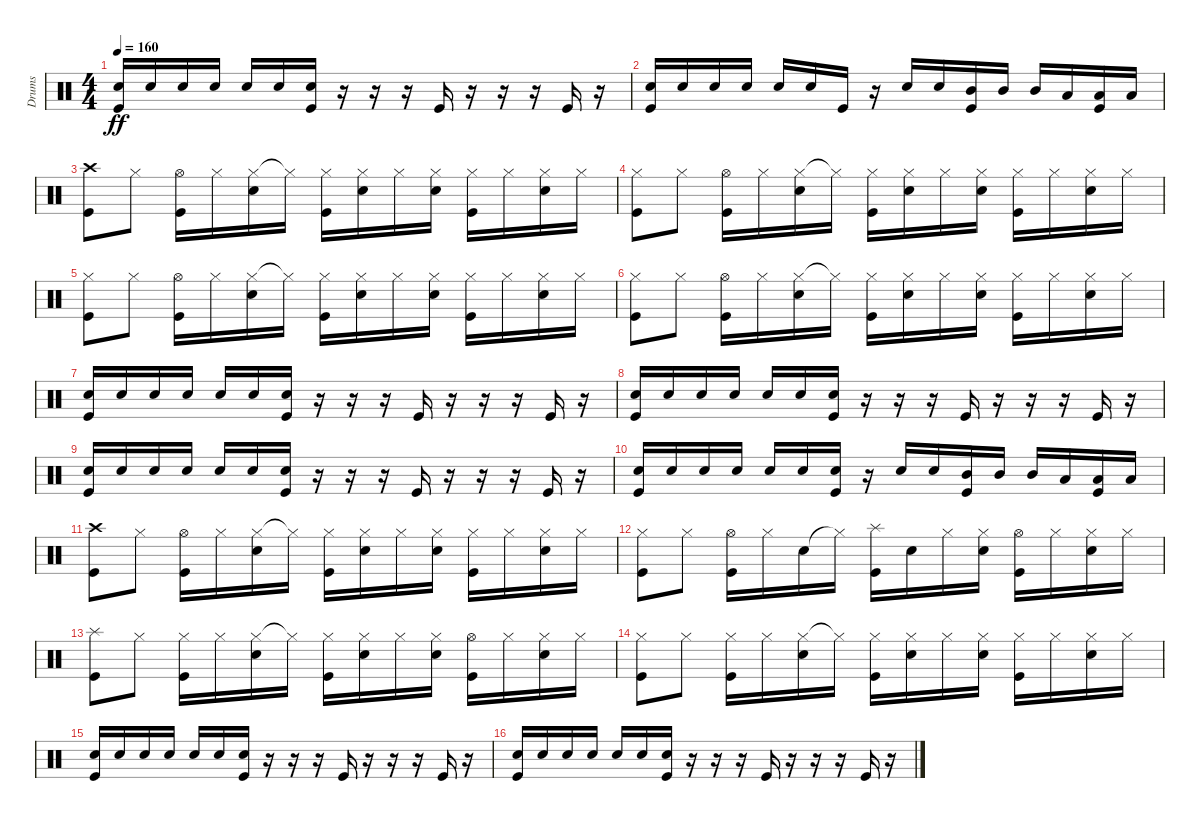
\track ("Drums" "Drums") {instrument percussion}
\staff {score}
\articulation defaults
\ts (4 4)
\tempo 160
\clef neutral
\ks c
("Electric Snare (hit)" "Kick (hit)").16{dy ff} "Electric Snare (hit)".16 "Electric Snare (hit)".16 "Electric Snare (hit)".16 "Electric Snare (hit)".16 "Electric Snare (hit)".16 ("Electric Snare (hit)" "Kick (hit)").16 r.16 r.16 r.16 "Kick (hit)".16 r.16 r.16 r.16 "Kick (hit)".16 r.16 |
("Electric Snare (hit)" "Kick (hit)").16 "Electric Snare (hit)".16 "Electric Snare (hit)".16 "Electric Snare (hit)".16 "Electric Snare (hit)".16 "Electric Snare (hit)".16 "Kick (hit)".16 r.16 "Electric Snare (hit)".16 "Electric Snare (hit)".16 ("Mid Tom (hit)" "Kick (hit)").16 "Mid Tom (hit)".16 "Mid Tom (hit)".16 "Low Tom (hit)".16 ("Low Tom (hit)" "Kick (hit)").16 "Low Tom (hit)".16 |
("Crash high (hit)" "Kick (hit)").8 "Hi-Hat (closed)".8 ("Hi-Hat (open)" "Kick (hit)").16 "Hi-Hat (closed)".16 ("Hi-Hat (closed)" "Electric Snare (hit)").16 "Hi-Hat (closed)"{t}.16 ("Hi-Hat (closed)" "Kick (hit)").16 ("Hi-Hat (closed)" "Electric Snare (hit)").16 "Hi-Hat (closed)".16 ("Hi-Hat (closed)" "Electric Snare (hit)").16 ("Hi-Hat (closed)" "Kick (hit)").16 "Hi-Hat (closed)".16 ("Hi-Hat (closed)" "Electric Snare (hit)").16 "Hi-Hat (closed)".16 |
("Hi-Hat (closed)" "Kick (hit)").8 "Hi-Hat (closed)".8 ("Hi-Hat (open)" "Kick (hit)").16 "Hi-Hat (closed)".16 ("Hi-Hat (closed)" "Electric Snare (hit)").16 "Hi-Hat (closed)"{t}.16 ("Hi-Hat (closed)" "Kick (hit)").16 ("Hi-Hat (closed)" "Electric Snare (hit)").16 "Hi-Hat (closed)".16 ("Hi-Hat (closed)" "Electric Snare (hit)").16 ("Hi-Hat (closed)" "Kick (hit)").16 "Hi-Hat (closed)".16 ("Hi-Hat (closed)" "Electric Snare (hit)").16 "Hi-Hat (closed)".16 |
("Hi-Hat (closed)" "Kick (hit)").8 "Hi-Hat (closed)".8 ("Hi-Hat (open)" "Kick (hit)").16 "Hi-Hat (closed)".16 ("Hi-Hat (closed)" "Electric Snare (hit)").16 "Hi-Hat (closed)"{t}.16 ("Hi-Hat (closed)" "Kick (hit)").16 ("Hi-Hat (closed)" "Electric Snare (hit)").16 "Hi-Hat (closed)".16 ("Hi-Hat (closed)" "Electric Snare (hit)").16 ("Hi-Hat (closed)" "Kick (hit)").16 "Hi-Hat (closed)".16 ("Hi-Hat (closed)" "Electric Snare (hit)").16 "Hi-Hat (closed)".16 |
("Hi-Hat (closed)" "Kick (hit)").8 "Hi-Hat (closed)".8 ("Hi-Hat (open)" "Kick (hit)").16 "Hi-Hat (closed)".16 ("Hi-Hat (closed)" "Electric Snare (hit)").16 "Hi-Hat (closed)"{t}.16 ("Hi-Hat (closed)" "Kick (hit)").16 ("Hi-Hat (closed)" "Electric Snare (hit)").16 "Hi-Hat (closed)".16 ("Hi-Hat (closed)" "Electric Snare (hit)").16 ("Hi-Hat (closed)" "Kick (hit)").16 "Hi-Hat (closed)".16 ("Hi-Hat (closed)" "Electric Snare (hit)").16 "Hi-Hat (closed)".16 |
("Electric Snare (hit)" "Kick (hit)").16 "Electric Snare (hit)".16 "Electric Snare (hit)".16 "Electric Snare (hit)".16 "Electric Snare (hit)".16 "Electric Snare (hit)".16 ("Electric Snare (hit)" "Kick (hit)").16 r.16 r.16 r.16 "Kick (hit)".16 r.16 r.16 r.16 "Kick (hit)".16 r.16 |
("Electric Snare (hit)" "Kick (hit)").16 "Electric Snare (hit)".16 "Electric Snare (hit)".16 "Electric Snare (hit)".16 "Electric Snare (hit)".16 "Electric Snare (hit)".16 ("Electric Snare (hit)" "Kick (hit)").16 r.16 r.16 r.16 "Kick (hit)".16 r.16 r.16 r.16 "Kick (hit)".16 r.16 |
("Electric Snare (hit)" "Kick (hit)").16 "Electric Snare (hit)".16 "Electric Snare (hit)".16 "Electric Snare (hit)".16 "Electric Snare (hit)".16 "Electric Snare (hit)".16 ("Electric Snare (hit)" "Kick (hit)").16 r.16 r.16 r.16 "Kick (hit)".16 r.16 r.16 r.16 "Kick (hit)".16 r.16 |
("Electric Snare (hit)" "Kick (hit)").16 "Electric Snare (hit)".16 "Electric Snare (hit)".16 "Electric Snare (hit)".16 "Electric Snare (hit)".16 "Electric Snare (hit)".16 ("Electric Snare (hit)" "Kick (hit)").16 r.16 "Electric Snare (hit)".16 "Electric Snare (hit)".16 ("Mid Tom (hit)" "Kick (hit)").16 "Mid Tom (hit)".16 "Mid Tom (hit)".16 "Low Tom (hit)".16 ("Low Tom (hit)" "Kick (hit)").16 "Low Tom (hit)".16 |
("Crash high (hit)" "Kick (hit)").8 "Hi-Hat (closed)".8 ("Hi-Hat (open)" "Kick (hit)").16 "Hi-Hat (closed)".16 ("Hi-Hat (closed)" "Electric Snare (hit)").16 "Hi-Hat (closed)"{t}.16 ("Hi-Hat (closed)" "Kick (hit)").16 ("Hi-Hat (closed)" "Electric Snare (hit)").16 "Hi-Hat (closed)".16 ("Hi-Hat (closed)" "Electric Snare (hit)").16 ("Hi-Hat (closed)" "Kick (hit)").16 "Hi-Hat (closed)".16 ("Hi-Hat (closed)" "Electric Snare (hit)").16 "Hi-Hat (closed)".16 |
("Hi-Hat (closed)" "Kick (hit)").8 "Hi-Hat (closed)".8 ("Hi-Hat (open)" "Kick (hit)").16 "Hi-Hat (closed)".16 "Electric Snare (hit)".16 "Hi-Hat (closed)"{t}.16 ("Splash (hit)" "Kick (hit)").16 "Electric Snare (hit)".16 "Hi-Hat (closed)".16 ("Hi-Hat (closed)" "Electric Snare (hit)").16 ("Hi-Hat (open)" "Kick (hit)").16 "Hi-Hat (closed)".16 ("Hi-Hat (closed)" "Electric Snare (hit)").16 "Hi-Hat (closed)".16 |
("Splash (hit)" "Kick (hit)").8 "Hi-Hat (closed)".8 ("Hi-Hat (closed)" "Kick (hit)").16 "Hi-Hat (closed)".16 ("Hi-Hat (closed)" "Electric Snare (hit)").16 "Hi-Hat (closed)"{t}.16 ("Hi-Hat (closed)" "Kick (hit)").16 ("Hi-Hat (closed)" "Electric Snare (hit)").16 "Hi-Hat (closed)".16 ("Hi-Hat (closed)" "Electric Snare (hit)").16 ("Hi-Hat (open)" "Kick (hit)").16 "Hi-Hat (closed)".16 ("Hi-Hat (closed)" "Electric Snare (hit)").16 "Hi-Hat (closed)".16 |
("Hi-Hat (closed)" "Kick (hit)").8 "Hi-Hat (closed)".8 ("Hi-Hat (closed)" "Kick (hit)").16 "Hi-Hat (closed)".16 ("Hi-Hat (closed)" "Electric Snare (hit)").16 "Hi-Hat (closed)"{t}.16 ("Hi-Hat (closed)" "Kick (hit)").16 ("Hi-Hat (closed)" "Electric Snare (hit)").16 "Hi-Hat (closed)".16 ("Hi-Hat (closed)" "Electric Snare (hit)").16 ("Hi-Hat (closed)" "Kick (hit)").16 "Hi-Hat (closed)".16 ("Hi-Hat (closed)" "Electric Snare (hit)").16 "Hi-Hat (closed)".16 |
("Electric Snare (hit)" "Kick (hit)").16 "Electric Snare (hit)".16 "Electric Snare (hit)".16 "Electric Snare (hit)".16 "Electric Snare (hit)".16 "Electric Snare (hit)".16 ("Electric Snare (hit)" "Kick (hit)").16 r.16 r.16 r.16 "Kick (hit)".16 r.16 r.16 r.16 "Kick (hit)".16 r.16 |
("Electric Snare (hit)" "Kick (hit)").16 "Electric Snare (hit)".16 "Electric Snare (hit)".16 "Electric Snare (hit)".16 "Electric Snare (hit)".16 "Electric Snare (hit)".16 ("Electric Snare (hit)" "Kick (hit)").16 r.16 r.16 r.16 "Kick (hit)".16 r.16 r.16 r.16 "Kick (hit)".16 r.16
